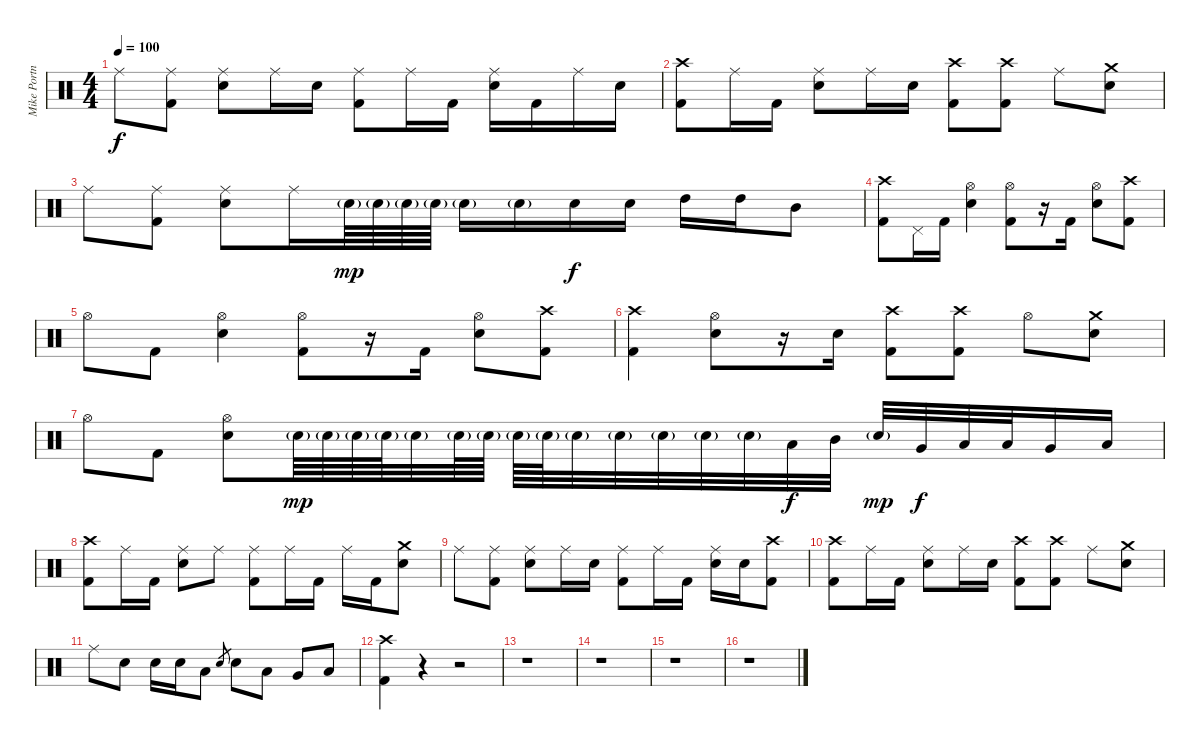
\track ("Mike Portnoy" "Mike Portn") {instrument percussion}
\staff {score}
\articulation defaults
\ts (4 4)
\tempo 100
\clef neutral
\ks c "Ride (middle)".8{dy f}
("Ride (middle)" "Kick (hit) 2").8 ("Ride (middle)" "Electric Snare (hit)").8 "Ride (middle)".16 "Electric Snare (hit)".16 ("Ride (middle)" "Kick (hit) 2").8 "Ride (middle)".16 "Kick (hit) 2".16 ("Ride (middle)" "Electric Snare (hit)").16 "Kick (hit) 2".16 "Ride (middle)".16 "Electric Snare (hit)".16 |
("Crash high (hit)" "Kick (hit) 2").8 "Ride (middle)".16 "Kick (hit) 2".16 ("Ride (middle)" "Electric Snare (hit)").8 "Ride (middle)".16 "Electric Snare (hit)".16 ("Crash high (hit)" "Kick (hit) 2").8 ("Crash high (hit)" "Kick (hit) 2").8 "Ride (middle)".8 ("Crash medium (hit)" "Electric Snare (hit)").8 |
"Ride (middle)".8 ("Ride (middle)" "Kick (hit) 2").8 ("Ride (middle)" "Electric Snare (hit)").8 "Ride (middle)".16 "Electric Snare (hit)"{g}.64{dy mp} "Electric Snare (hit)"{g}.64 "Electric Snare (hit)"{g}.64 "Electric Snare (hit)"{g}.64 "Electric Snare (hit)"{g}.16 "Electric Snare (hit)"{g}.16 "Electric Snare (hit)".16{dy f} "Electric Snare (hit)".16 "High Tom (hit)".16 "High Tom (hit)".16 "Mid Tom (hit)".8 |
("Crash high (hit)" "Kick (hit) 2").8 "Pedal Hi-Hat (hit)".16 "Kick (hit) 2".16 ("Hi-Hat (open)" "Electric Snare (hit)").4 ("Hi-Hat (open)" "Kick (hit) 2").8 r.16 "Kick (hit) 2".16 ("Hi-Hat (open)" "Electric Snare (hit)").8 ("Crash high (hit)" "Kick (hit) 2").8 |
"Hi-Hat (open)".8 "Kick (hit) 2".8 ("Hi-Hat (open)" "Electric Snare (hit)").4 ("Hi-Hat (open)" "Kick (hit) 2").8 r.16 "Kick (hit) 2".16 ("Hi-Hat (open)" "Electric Snare (hit)").8 ("Crash high (hit)" "Kick (hit) 2").8 |
("Crash high (hit)" "Kick (hit) 2").4 ("Hi-Hat (open)" "Electric Snare (hit)").8 r.16 "Electric Snare (hit)".16 ("Crash high (hit)" "Kick (hit) 2").8 ("Crash high (hit)" "Kick (hit) 2").8 "Hi-Hat (open)".8 ("Crash medium (hit)" "Electric Snare (hit)").8 |
"Hi-Hat (open)".8 "Kick (hit) 2".8 ("Hi-Hat (open)" "Electric Snare (hit)").8 "Electric Snare (hit)"{g}.64{dy mp} "Electric Snare (hit)"{g}.64 "Electric Snare (hit)"{g}.64 "Electric Snare (hit)"{g}.64 "Electric Snare (hit)"{g}.32 "Electric Snare (hit)"{g}.64 "Electric Snare (hit)"{g}.64 "Electric Snare (hit)"{g}.64 "Electric Snare (hit)"{g}.64 "Electric Snare (hit)"{g}.32 "Electric Snare (hit)"{g}.32 "Electric Snare (hit)"{g}.32 "Electric Snare (hit)"{g}.32 "Electric Snare (hit)"{g}.32 "Low Tom (hit)".32{dy f} "Mid Tom (hit)".32 "Electric Snare (hit)"{g}.32{dy mp} "Very Low Tom (hit)".32{dy f} "Low Tom (hit)".32 "Low Tom (hit)".32 "Very Low Tom (hit)".16 "Low Floor Tom (hit)".16 |
("Crash high (hit)" "Kick (hit) 2").8 "Ride (middle)".16 "Kick (hit) 2".16 ("Ride (middle)" "Electric Snare (hit)").8 "Ride (middle)".8 ("Ride (middle)" "Kick (hit) 2").8 "Ride (middle)".16 "Kick (hit) 2".16 "Ride (middle)".16 "Kick (hit) 2".16 ("Crash medium (hit)" "Electric Snare (hit)").8 |
"Ride (middle)".8 ("Ride (middle)" "Kick (hit) 2").8 ("Ride (middle)" "Electric Snare (hit)").8 "Ride (middle)".16 "Electric Snare (hit)".16 ("Ride (middle)" "Kick (hit) 2").8 "Ride (middle)".16 "Kick (hit) 2".16 ("Ride (middle)" "Electric Snare (hit)").16 "Electric Snare (hit)".16 ("Crash high (hit)" "Kick (hit) 2").8 |
("Crash high (hit)" "Kick (hit) 2").8 "Ride (middle)".16 "Kick (hit) 2".16 ("Ride (middle)" "Electric Snare (hit)").8 "Ride (middle)".16 "Electric Snare (hit)".16 ("Crash high (hit)" "Kick (hit) 2").8 ("Crash high (hit)" "Kick (hit) 2").8 "Ride (middle)".8 ("Crash medium (hit)" "Electric Snare (hit)").8 |
"Ride (middle)".8 "Electric Snare (hit)".8 "Electric Snare (hit)".16 "Electric Snare (hit)".16 "Low Tom (hit)".8 "Electric Snare (hit)".8{gr} "Electric Snare (hit)".8 "Low Tom (hit)".8 "Very Low Tom (hit)".8 "Low Floor Tom (hit)".8 |
("Crash high (hit)" "Kick (hit) 2").4 r.4 r.2 |
r.1 |
r.1 |
r.1 |
r.1
